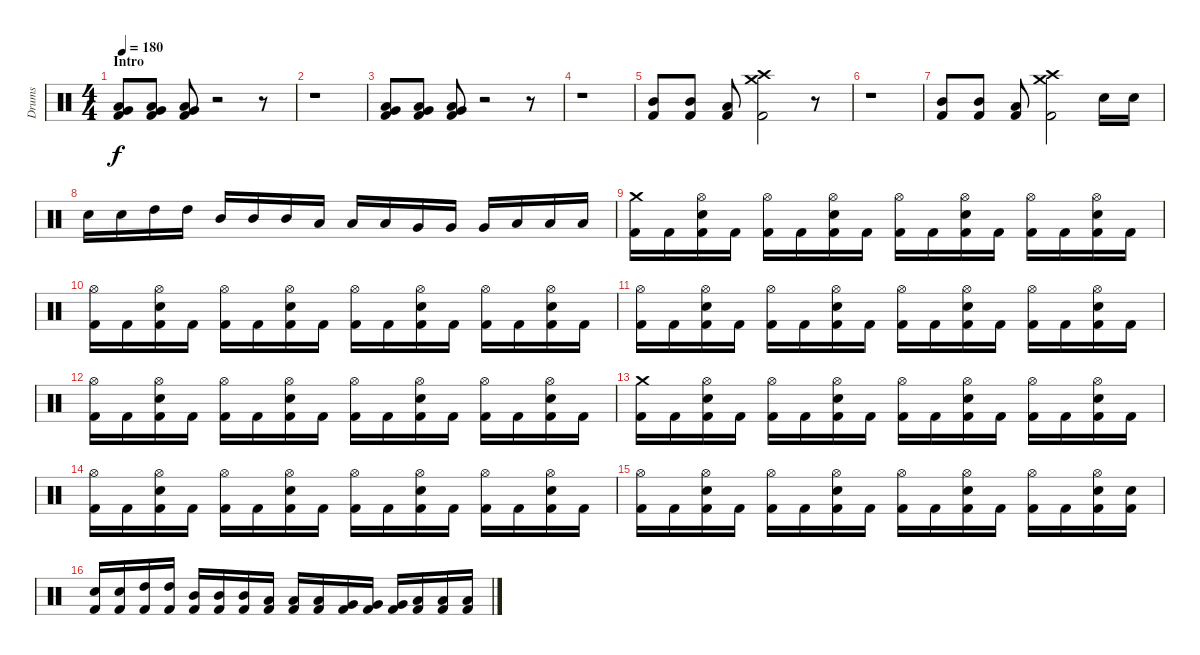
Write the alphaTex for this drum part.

\track ("Drums" "Drums") {instrument percussion}
\staff {score}
\articulation defaults
\ts (4 4)
\section ("" "Intro")
\tempo 180
\clef neutral
\ks c
("Kick (hit) 2" "Low Tom (hit)" "Very Low Tom (hit)").8{dy f} ("Kick (hit) 2" "Low Tom (hit)" "Very Low Tom (hit)").8 ("Kick (hit) 2" "Low Tom (hit)" "Very Low Tom (hit)").8 r.2 r.8 |
r.1 |
("Kick (hit) 2" "Low Tom (hit)" "Very Low Tom (hit)").8 ("Kick (hit) 2" "Low Tom (hit)" "Very Low Tom (hit)").8 ("Kick (hit) 2" "Low Tom (hit)" "Very Low Tom (hit)").8 r.2 r.8 |
r.1 |
("Kick (hit) 2" "Mid Tom (hit)").8 ("Kick (hit) 2" "Mid Tom (hit)").8 ("Kick (hit) 2" "Low Tom (hit)").8 ("Kick (hit) 2" "Crash high (hit)" "Crash medium (hit)").2 r.8 |
r.1 |
("Kick (hit) 2" "Mid Tom (hit)").8 ("Kick (hit) 2" "Mid Tom (hit)").8 ("Kick (hit) 2" "Low Tom (hit)").8 ("Kick (hit) 2" "Crash high (hit)" "Crash medium (hit)").2 "Electric Snare (hit)".16 "Electric Snare (hit)".16 |
"Electric Snare (hit)".16 "Electric Snare (hit)".16 "High Tom (hit)".16 "High Tom (hit)".16 "Mid Tom (hit)".16 "Mid Tom (hit)".16 "Mid Tom (hit)".16 "Low Tom (hit)".16 "Low Tom (hit)".16 "Low Tom (hit)".16 "Very Low Tom (hit)".16 "Very Low Tom (hit)".16 "Very Low Tom (hit)".16 "Low Floor Tom (hit)".16 "Low Floor Tom (hit)".16 "Low Floor Tom (hit)".16 |
("Kick (hit) 2" "Crash medium (hit)").16 "Kick (hit) 2".16 ("Kick (hit) 2" "Electric Snare (hit)" "Hi-Hat (open)").16 "Kick (hit) 2".16 ("Kick (hit) 2" "Hi-Hat (open)").16 "Kick (hit) 2".16 ("Kick (hit) 2" "Electric Snare (hit)" "Hi-Hat (open)").16 "Kick (hit) 2".16 ("Kick (hit) 2" "Hi-Hat (open)").16 "Kick (hit) 2".16 ("Kick (hit) 2" "Electric Snare (hit)" "Hi-Hat (open)").16 "Kick (hit) 2".16 ("Kick (hit) 2" "Hi-Hat (open)").16 "Kick (hit) 2".16 ("Kick (hit) 2" "Electric Snare (hit)" "Hi-Hat (open)").16 "Kick (hit) 2".16 |
("Kick (hit) 2" "Hi-Hat (open)").16 "Kick (hit) 2".16 ("Kick (hit) 2" "Electric Snare (hit)" "Hi-Hat (open)").16 "Kick (hit) 2".16 ("Kick (hit) 2" "Hi-Hat (open)").16 "Kick (hit) 2".16 ("Kick (hit) 2" "Electric Snare (hit)" "Hi-Hat (open)").16 "Kick (hit) 2".16 ("Kick (hit) 2" "Hi-Hat (open)").16 "Kick (hit) 2".16 ("Kick (hit) 2" "Electric Snare (hit)" "Hi-Hat (open)").16 "Kick (hit) 2".16 ("Kick (hit) 2" "Hi-Hat (open)").16 "Kick (hit) 2".16 ("Kick (hit) 2" "Electric Snare (hit)" "Hi-Hat (open)").16 "Kick (hit) 2".16 |
("Kick (hit) 2" "Hi-Hat (open)").16 "Kick (hit) 2".16 ("Kick (hit) 2" "Electric Snare (hit)" "Hi-Hat (open)").16 "Kick (hit) 2".16 ("Kick (hit) 2" "Hi-Hat (open)").16 "Kick (hit) 2".16 ("Kick (hit) 2" "Electric Snare (hit)" "Hi-Hat (open)").16 "Kick (hit) 2".16 ("Kick (hit) 2" "Hi-Hat (open)").16 "Kick (hit) 2".16 ("Kick (hit) 2" "Electric Snare (hit)" "Hi-Hat (open)").16 "Kick (hit) 2".16 ("Kick (hit) 2" "Hi-Hat (open)").16 "Kick (hit) 2".16 ("Kick (hit) 2" "Electric Snare (hit)" "Hi-Hat (open)").16 "Kick (hit) 2".16 |
("Kick (hit) 2" "Hi-Hat (open)").16 "Kick (hit) 2".16 ("Kick (hit) 2" "Electric Snare (hit)" "Hi-Hat (open)").16 "Kick (hit) 2".16 ("Kick (hit) 2" "Hi-Hat (open)").16 "Kick (hit) 2".16 ("Kick (hit) 2" "Electric Snare (hit)" "Hi-Hat (open)").16 "Kick (hit) 2".16 ("Kick (hit) 2" "Hi-Hat (open)").16 "Kick (hit) 2".16 ("Kick (hit) 2" "Electric Snare (hit)" "Hi-Hat (open)").16 "Kick (hit) 2".16 ("Kick (hit) 2" "Hi-Hat (open)").16 "Kick (hit) 2".16 ("Kick (hit) 2" "Electric Snare (hit)" "Hi-Hat (open)").16 "Kick (hit) 2".16 |
("Kick (hit) 2" "Crash medium (hit)").16 "Kick (hit) 2".16 ("Kick (hit) 2" "Electric Snare (hit)" "Hi-Hat (open)").16 "Kick (hit) 2".16 ("Kick (hit) 2" "Hi-Hat (open)").16 "Kick (hit) 2".16 ("Kick (hit) 2" "Electric Snare (hit)" "Hi-Hat (open)").16 "Kick (hit) 2".16 ("Kick (hit) 2" "Hi-Hat (open)").16 "Kick (hit) 2".16 ("Kick (hit) 2" "Electric Snare (hit)" "Hi-Hat (open)").16 "Kick (hit) 2".16 ("Kick (hit) 2" "Hi-Hat (open)").16 "Kick (hit) 2".16 ("Kick (hit) 2" "Electric Snare (hit)" "Hi-Hat (open)").16 "Kick (hit) 2".16 |
("Kick (hit) 2" "Hi-Hat (open)").16 "Kick (hit) 2".16 ("Kick (hit) 2" "Electric Snare (hit)" "Hi-Hat (open)").16 "Kick (hit) 2".16 ("Kick (hit) 2" "Hi-Hat (open)").16 "Kick (hit) 2".16 ("Kick (hit) 2" "Electric Snare (hit)" "Hi-Hat (open)").16 "Kick (hit) 2".16 ("Kick (hit) 2" "Hi-Hat (open)").16 "Kick (hit) 2".16 ("Kick (hit) 2" "Electric Snare (hit)" "Hi-Hat (open)").16 "Kick (hit) 2".16 ("Kick (hit) 2" "Hi-Hat (open)").16 "Kick (hit) 2".16 ("Kick (hit) 2" "Electric Snare (hit)" "Hi-Hat (open)").16 "Kick (hit) 2".16 |
("Kick (hit) 2" "Hi-Hat (open)").16 "Kick (hit) 2".16 ("Kick (hit) 2" "Electric Snare (hit)" "Hi-Hat (open)").16 "Kick (hit) 2".16 ("Kick (hit) 2" "Hi-Hat (open)").16 "Kick (hit) 2".16 ("Kick (hit) 2" "Electric Snare (hit)" "Hi-Hat (open)").16 "Kick (hit) 2".16 ("Kick (hit) 2" "Hi-Hat (open)").16 "Kick (hit) 2".16 ("Kick (hit) 2" "Electric Snare (hit)" "Hi-Hat (open)").16 "Kick (hit) 2".16 ("Kick (hit) 2" "Hi-Hat (open)").16 "Kick (hit) 2".16 ("Kick (hit) 2" "Electric Snare (hit)" "Hi-Hat (open)").16 ("Kick (hit) 2" "Electric Snare (hit)").16 |
("Kick (hit) 2" "Electric Snare (hit)").16 ("Kick (hit) 2" "Electric Snare (hit)").16 ("Kick (hit) 2" "High Tom (hit)").16 ("Kick (hit) 2" "High Tom (hit)").16 ("Kick (hit) 2" "Mid Tom (hit)").16 ("Kick (hit) 2" "Mid Tom (hit)").16 ("Kick (hit) 2" "Mid Tom (hit)").16 ("Kick (hit) 2" "Low Tom (hit)").16 ("Kick (hit) 2" "Low Tom (hit)").16 ("Kick (hit) 2" "Low Tom (hit)").16 ("Kick (hit) 2" "Very Low Tom (hit)").16 ("Kick (hit) 2" "Very Low Tom (hit)").16 ("Kick (hit) 2" "Very Low Tom (hit)").16 ("Kick (hit) 2" "Low Floor Tom (hit)").16 ("Kick (hit) 2" "Low Floor Tom (hit)").16 ("Kick (hit) 2" "Low Floor Tom (hit)").16
